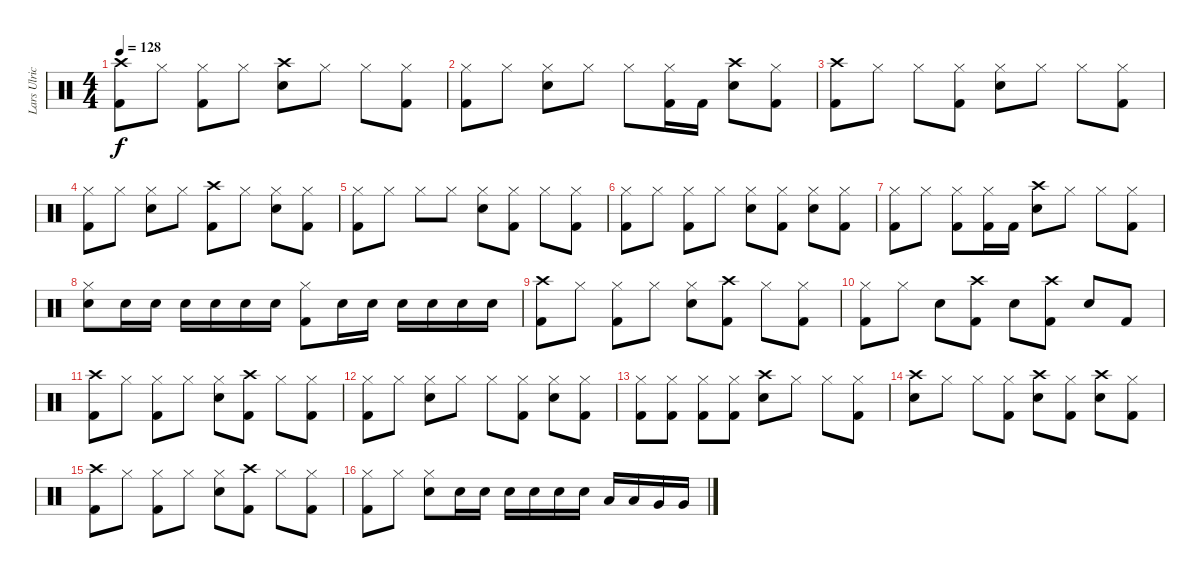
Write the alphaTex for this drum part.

\track ("Lars Ulrich" "Lars Ulric") {instrument percussion}
\staff {score}
\articulation defaults
\ts (4 4)
\tempo 128
\clef neutral
\ks c
("Crash high (hit)" "Kick (hit) 2").8{dy f} "Hi-Hat (closed)".8 ("Hi-Hat (closed)" "Kick (hit) 2").8 "Hi-Hat (closed)".8 ("Crash high (hit)" "Electric Snare (hit)").8 "Hi-Hat (closed)".8 "Hi-Hat (closed)".8 ("Hi-Hat (closed)" "Kick (hit) 2").8 |
("Hi-Hat (closed)" "Kick (hit) 2").8 "Hi-Hat (closed)".8 ("Hi-Hat (closed)" "Electric Snare (hit)").8 "Hi-Hat (closed)".8 "Hi-Hat (closed)".8 ("Hi-Hat (closed)" "Kick (hit) 2").16 "Kick (hit) 2".16 ("Crash high (hit)" "Electric Snare (hit)").8 ("Hi-Hat (closed)" "Kick (hit) 2").8 |
("Crash high (hit)" "Kick (hit) 2").8 "Hi-Hat (closed)".8 "Hi-Hat (closed)".8 ("Hi-Hat (closed)" "Kick (hit) 2").8 ("Hi-Hat (closed)" "Electric Snare (hit)").8 "Hi-Hat (closed)".8 "Hi-Hat (closed)".8 ("Hi-Hat (closed)" "Kick (hit) 2").8 |
("Hi-Hat (closed)" "Kick (hit) 2").8 "Hi-Hat (closed)".8 ("Hi-Hat (closed)" "Electric Snare (hit)").8 "Hi-Hat (closed)".8 ("Crash high (hit)" "Kick (hit) 2").8 "Hi-Hat (closed)".8 ("Hi-Hat (closed)" "Electric Snare (hit)").8 ("Hi-Hat (closed)" "Kick (hit) 2").8 |
("Hi-Hat (closed)" "Kick (hit) 2").8 "Hi-Hat (closed)".8 "Hi-Hat (closed)".8 "Hi-Hat (closed)".8 ("Hi-Hat (closed)" "Electric Snare (hit)").8 ("Hi-Hat (closed)" "Kick (hit) 2").8 "Hi-Hat (closed)".8 ("Hi-Hat (closed)" "Kick (hit) 2").8 |
("Hi-Hat (closed)" "Kick (hit) 2").8 "Hi-Hat (closed)".8 ("Hi-Hat (closed)" "Kick (hit) 2").8 "Hi-Hat (closed)".8 ("Hi-Hat (closed)" "Electric Snare (hit)").8 ("Hi-Hat (closed)" "Kick (hit) 2").8 ("Hi-Hat (closed)" "Electric Snare (hit)").8 ("Hi-Hat (closed)" "Kick (hit) 2").8 |
("Hi-Hat (closed)" "Kick (hit) 2").8 "Hi-Hat (closed)".8 ("Hi-Hat (closed)" "Kick (hit) 2").8 ("Hi-Hat (closed)" "Kick (hit) 2").16 "Kick (hit) 2".16 ("Crash high (hit)" "Electric Snare (hit)").8 "Hi-Hat (closed)".8 "Hi-Hat (closed)".8 ("Hi-Hat (closed)" "Kick (hit) 2").8 |
("Hi-Hat (closed)" "Electric Snare (hit)").8 "Electric Snare (hit)".16 "Electric Snare (hit)".16 "Electric Snare (hit)".16 "Electric Snare (hit)".16 "Electric Snare (hit)".16 "Electric Snare (hit)".16 ("Hi-Hat (closed)" "Kick (hit) 2").8 "Electric Snare (hit)".16 "Electric Snare (hit)".16 "Electric Snare (hit)".16 "Electric Snare (hit)".16 "Electric Snare (hit)".16 "Electric Snare (hit)".16 |
("Crash high (hit)" "Kick (hit) 2").8 "Hi-Hat (closed)".8 ("Hi-Hat (closed)" "Kick (hit) 2").8 "Hi-Hat (closed)".8 ("Hi-Hat (closed)" "Electric Snare (hit)").8 ("Crash high (hit)" "Kick (hit) 2").8 "Hi-Hat (closed)".8 ("Hi-Hat (closed)" "Kick (hit) 2").8 |
("Hi-Hat (closed)" "Kick (hit) 2").8 "Hi-Hat (closed)".8 "Electric Snare (hit)".8 ("Crash high (hit)" "Kick (hit) 2").8 "Electric Snare (hit)".8 ("Crash high (hit)" "Kick (hit) 2").8 "Electric Snare (hit)".8 "Kick (hit) 2".8 |
("Crash high (hit)" "Kick (hit) 2").8 "Hi-Hat (closed)".8 ("Hi-Hat (closed)" "Kick (hit) 2").8 "Hi-Hat (closed)".8 ("Hi-Hat (closed)" "Electric Snare (hit)").8 ("Crash high (hit)" "Kick (hit) 2").8 "Hi-Hat (closed)".8 ("Hi-Hat (closed)" "Kick (hit) 2").8 |
("Hi-Hat (closed)" "Kick (hit) 2").8 "Hi-Hat (closed)".8 ("Hi-Hat (closed)" "Electric Snare (hit)").8 "Hi-Hat (closed)".8 "Hi-Hat (closed)".8 ("Hi-Hat (closed)" "Kick (hit) 2").8 ("Hi-Hat (closed)" "Electric Snare (hit)").8 ("Hi-Hat (closed)" "Kick (hit) 2").8 |
("Hi-Hat (closed)" "Kick (hit) 2").8 ("Hi-Hat (closed)" "Kick (hit) 2").8 ("Hi-Hat (closed)" "Kick (hit) 2").8 ("Hi-Hat (closed)" "Kick (hit) 2").8 ("Crash high (hit)" "Electric Snare (hit)").8 "Hi-Hat (closed)".8 "Hi-Hat (closed)".8 ("Hi-Hat (closed)" "Kick (hit) 2").8 |
("Crash high (hit)" "Electric Snare (hit)").8 "Hi-Hat (closed)".8 "Hi-Hat (closed)".8 ("Hi-Hat (closed)" "Kick (hit) 2").8 ("Crash high (hit)" "Electric Snare (hit)").8 ("Hi-Hat (closed)" "Kick (hit) 2").8 ("Crash high (hit)" "Electric Snare (hit)").8 ("Hi-Hat (closed)" "Kick (hit) 2").8 |
("Crash high (hit)" "Kick (hit) 2").8 "Hi-Hat (closed)".8 ("Hi-Hat (closed)" "Kick (hit) 2").8 "Hi-Hat (closed)".8 ("Hi-Hat (closed)" "Electric Snare (hit)").8 ("Crash high (hit)" "Kick (hit) 2").8 "Hi-Hat (closed)".8 ("Hi-Hat (closed)" "Kick (hit) 2").8 |
("Hi-Hat (closed)" "Kick (hit) 2").8 "Hi-Hat (closed)".8 ("Hi-Hat (closed)" "Electric Snare (hit)").8 "Electric Snare (hit)".16 "Electric Snare (hit)".16 "Electric Snare (hit)".16 "Electric Snare (hit)".16 "Electric Snare (hit)".16 "Electric Snare (hit)".16 "Low Floor Tom (hit)".16 "Low Floor Tom (hit)".16 "Very Low Tom (hit)".16 "Very Low Tom (hit)".16
